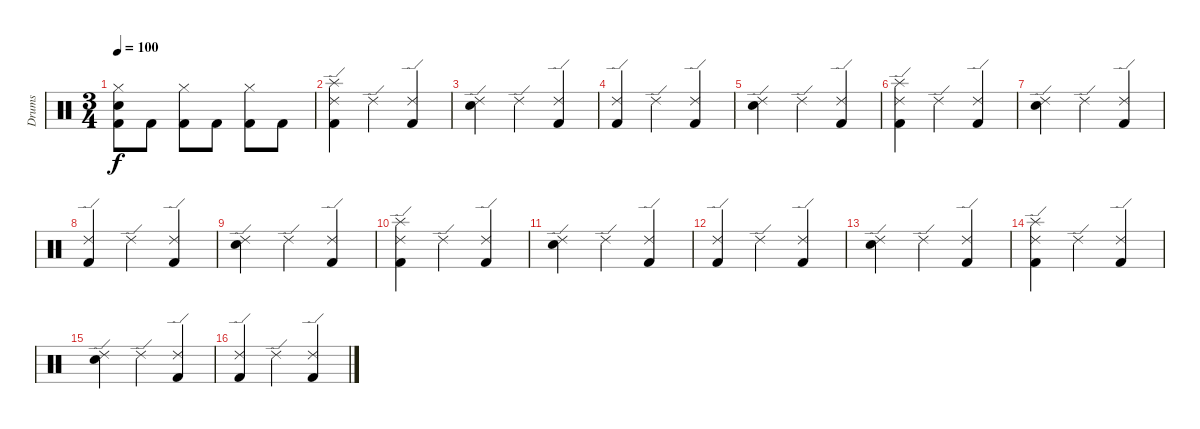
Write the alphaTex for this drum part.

\track ("Drums" "Drums") {instrument percussion}
\staff {score}
\articulation defaults
\ts (3 4)
\tempo 100
\clef neutral
\ks c
("Hi-Hat (closed)" "Electric Snare (hit)" "Kick (hit) 2").8{dy f} "Kick (hit) 2".8 ("Hi-Hat (closed)" "Kick (hit) 2").8 "Kick (hit) 2".8 ("Hi-Hat (closed)" "Kick (hit) 2").8 "Kick (hit) 2".8 |
("Ride (edge) 2" "Splash (hit)" "Kick (hit) 2").4 "Ride (edge) 2".4 ("Ride (edge) 2" "Kick (hit) 2").4 |
("Ride (edge) 2" "Electric Snare (hit)").4 "Ride (edge) 2".4 ("Ride (edge) 2" "Kick (hit) 2").4 |
("Ride (edge) 2" "Kick (hit) 2").4 "Ride (edge) 2".4 ("Ride (edge) 2" "Kick (hit) 2").4 |
("Ride (edge) 2" "Electric Snare (hit)").4 "Ride (edge) 2".4 ("Ride (edge) 2" "Kick (hit) 2").4 |
("Ride (edge) 2" "Splash (hit)" "Kick (hit) 2").4 "Ride (edge) 2".4 ("Ride (edge) 2" "Kick (hit) 2").4 |
("Ride (edge) 2" "Electric Snare (hit)").4 "Ride (edge) 2".4 ("Ride (edge) 2" "Kick (hit) 2").4 |
("Ride (edge) 2" "Kick (hit) 2").4 "Ride (edge) 2".4 ("Ride (edge) 2" "Kick (hit) 2").4 |
("Ride (edge) 2" "Electric Snare (hit)").4 "Ride (edge) 2".4 ("Ride (edge) 2" "Kick (hit) 2").4 |
("Ride (edge) 2" "Splash (hit)" "Kick (hit) 2").4 "Ride (edge) 2".4 ("Ride (edge) 2" "Kick (hit) 2").4 |
("Ride (edge) 2" "Electric Snare (hit)").4 "Ride (edge) 2".4 ("Ride (edge) 2" "Kick (hit) 2").4 |
("Ride (edge) 2" "Kick (hit) 2").4 "Ride (edge) 2".4 ("Ride (edge) 2" "Kick (hit) 2").4 |
("Ride (edge) 2" "Electric Snare (hit)").4 "Ride (edge) 2".4 ("Ride (edge) 2" "Kick (hit) 2").4 |
("Ride (edge) 2" "Splash (hit)" "Kick (hit) 2").4 "Ride (edge) 2".4 ("Ride (edge) 2" "Kick (hit) 2").4 |
("Ride (edge) 2" "Electric Snare (hit)").4 "Ride (edge) 2".4 ("Ride (edge) 2" "Kick (hit) 2").4 |
("Ride (edge) 2" "Kick (hit) 2").4 "Ride (edge) 2".4 ("Ride (edge) 2" "Kick (hit) 2").4
